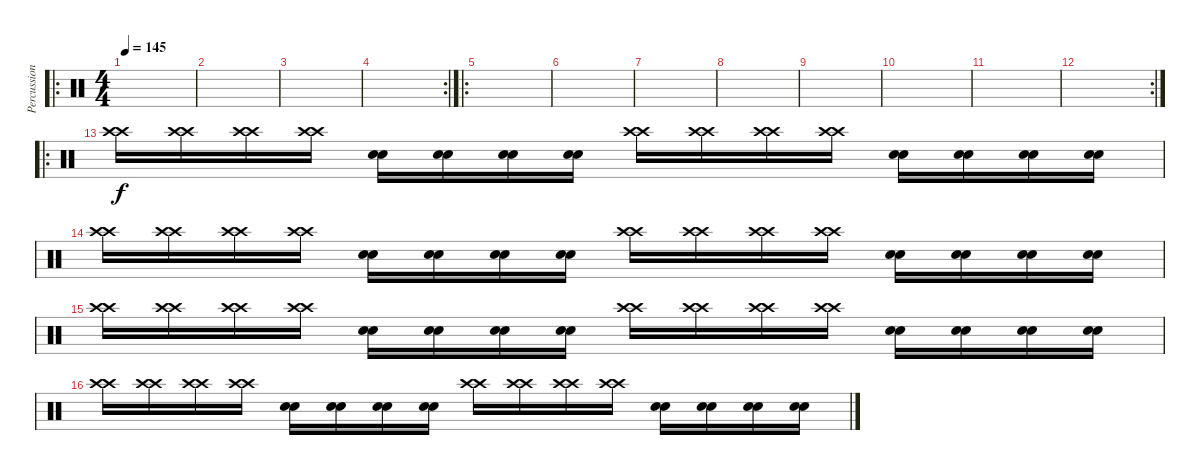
\track ("Percussions" "Percussion") {instrument percussion}
\staff {score}
\articulation defaults
\ro
\ts (4 4)
\tempo 145
\clef neutral
\ks c
|
|
|
\rc 2
|
\ro
|
|
|
|
|
|
|
\rc 2
|
\ro
("Crash high (hit)" "Crash high (hit)").16 ("Crash high (hit)" "Crash high (hit)").16 ("Crash high (hit)" "Crash high (hit)").16 ("Crash high (hit)" "Crash high (hit)").16 ("Snare (hit) 2" "Snare (hit) 2").16 ("Snare (hit) 2" "Snare (hit) 2").16 ("Snare (hit) 2" "Snare (hit) 2").16 ("Snare (hit) 2" "Snare (hit) 2").16 ("Crash high (hit)" "Crash high (hit)").16 ("Crash high (hit)" "Crash high (hit)").16 ("Crash high (hit)" "Crash high (hit)").16 ("Crash high (hit)" "Crash high (hit)").16 ("Snare (hit) 2" "Snare (hit) 2").16 ("Snare (hit) 2" "Snare (hit) 2").16 ("Snare (hit) 2" "Snare (hit) 2").16 ("Snare (hit) 2" "Snare (hit) 2").16 |
("Crash high (hit)" "Crash high (hit)").16 ("Crash high (hit)" "Crash high (hit)").16 ("Crash high (hit)" "Crash high (hit)").16 ("Crash high (hit)" "Crash high (hit)").16 ("Snare (hit) 2" "Snare (hit) 2").16 ("Snare (hit) 2" "Snare (hit) 2").16 ("Snare (hit) 2" "Snare (hit) 2").16 ("Snare (hit) 2" "Snare (hit) 2").16 ("Crash high (hit)" "Crash high (hit)").16 ("Crash high (hit)" "Crash high (hit)").16 ("Crash high (hit)" "Crash high (hit)").16 ("Crash high (hit)" "Crash high (hit)").16 ("Snare (hit) 2" "Snare (hit) 2").16 ("Snare (hit) 2" "Snare (hit) 2").16 ("Snare (hit) 2" "Snare (hit) 2").16 ("Snare (hit) 2" "Snare (hit) 2").16 |
("Crash high (hit)" "Crash high (hit)").16 ("Crash high (hit)" "Crash high (hit)").16 ("Crash high (hit)" "Crash high (hit)").16 ("Crash high (hit)" "Crash high (hit)").16 ("Snare (hit) 2" "Snare (hit) 2").16 ("Snare (hit) 2" "Snare (hit) 2").16 ("Snare (hit) 2" "Snare (hit) 2").16 ("Snare (hit) 2" "Snare (hit) 2").16 ("Crash high (hit)" "Crash high (hit)").16 ("Crash high (hit)" "Crash high (hit)").16 ("Crash high (hit)" "Crash high (hit)").16 ("Crash high (hit)" "Crash high (hit)").16 ("Snare (hit) 2" "Snare (hit) 2").16 ("Snare (hit) 2" "Snare (hit) 2").16 ("Snare (hit) 2" "Snare (hit) 2").16 ("Snare (hit) 2" "Snare (hit) 2").16 |
("Crash high (hit)" "Crash high (hit)").16 ("Crash high (hit)" "Crash high (hit)").16 ("Crash high (hit)" "Crash high (hit)").16 ("Crash high (hit)" "Crash high (hit)").16 ("Snare (hit) 2" "Snare (hit) 2").16 ("Snare (hit) 2" "Snare (hit) 2").16 ("Snare (hit) 2" "Snare (hit) 2").16 ("Snare (hit) 2" "Snare (hit) 2").16 ("Crash high (hit)" "Crash high (hit)").16 ("Crash high (hit)" "Crash high (hit)").16 ("Crash high (hit)" "Crash high (hit)").16 ("Crash high (hit)" "Crash high (hit)").16 ("Snare (hit) 2" "Snare (hit) 2").16 ("Snare (hit) 2" "Snare (hit) 2").16 ("Snare (hit) 2" "Snare (hit) 2").16 ("Snare (hit) 2" "Snare (hit) 2").16
